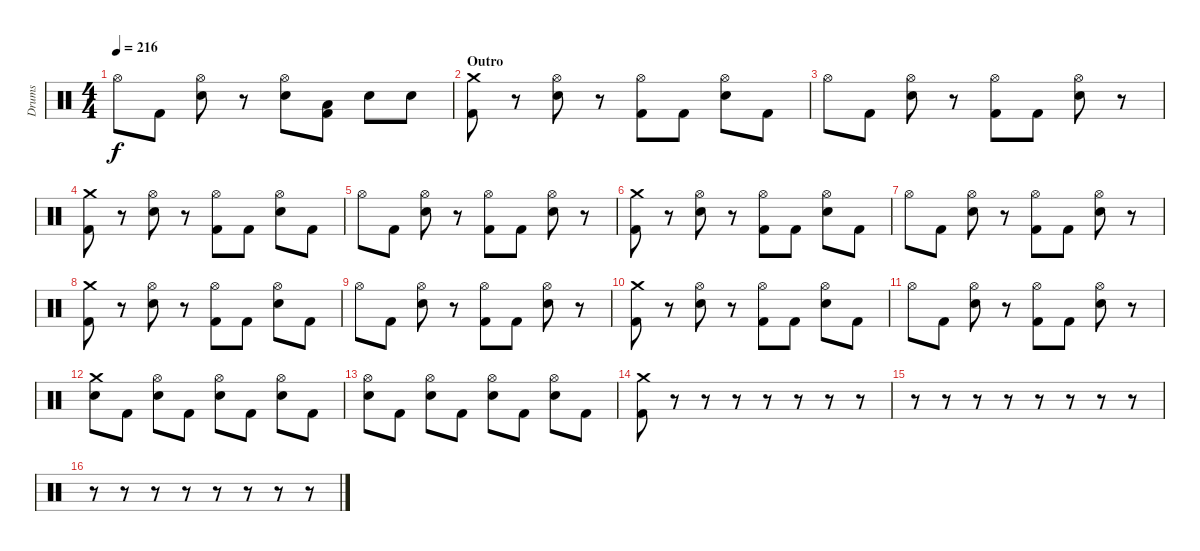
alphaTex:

\track ("Drums" "Drums") {instrument percussion}
\staff {score}
\articulation defaults
\ts (4 4)
\tempo 216
\clef neutral
\ks c "Hi-Hat (open)".8{dy f} "Kick (hit) 2".8
("Hi-Hat (open)" "Electric Snare (hit)").8 r.8 ("Hi-Hat (open)" "Electric Snare (hit)").8 ("Low Tom (hit)" "Kick (hit) 2").8 "Electric Snare (hit)".8 "Electric Snare (hit)".8 |
\section ("" "Outro")
("Crash medium (hit)" "Kick (hit) 2").8 r.8 ("Hi-Hat (open)" "Electric Snare (hit)").8 r.8 ("Hi-Hat (open)" "Kick (hit) 2").8 "Kick (hit) 2".8 ("Hi-Hat (open)" "Electric Snare (hit)").8 "Kick (hit) 2".8 |
"Hi-Hat (open)".8 "Kick (hit) 2".8 ("Hi-Hat (open)" "Electric Snare (hit)").8 r.8 ("Hi-Hat (open)" "Kick (hit) 2").8 "Kick (hit) 2".8 ("Hi-Hat (open)" "Electric Snare (hit)").8 r.8 |
("Crash medium (hit)" "Kick (hit) 2").8 r.8 ("Hi-Hat (open)" "Electric Snare (hit)").8 r.8 ("Hi-Hat (open)" "Kick (hit) 2").8 "Kick (hit) 2".8 ("Hi-Hat (open)" "Electric Snare (hit)").8 "Kick (hit) 2".8 |
"Hi-Hat (open)".8 "Kick (hit) 2".8 ("Hi-Hat (open)" "Electric Snare (hit)").8 r.8 ("Hi-Hat (open)" "Kick (hit) 2").8 "Kick (hit) 2".8 ("Hi-Hat (open)" "Electric Snare (hit)").8 r.8 |
("Crash medium (hit)" "Kick (hit) 2").8 r.8 ("Hi-Hat (open)" "Electric Snare (hit)").8 r.8 ("Hi-Hat (open)" "Kick (hit) 2").8 "Kick (hit) 2".8 ("Hi-Hat (open)" "Electric Snare (hit)").8 "Kick (hit) 2".8 |
"Hi-Hat (open)".8 "Kick (hit) 2".8 ("Hi-Hat (open)" "Electric Snare (hit)").8 r.8 ("Hi-Hat (open)" "Kick (hit) 2").8 "Kick (hit) 2".8 ("Hi-Hat (open)" "Electric Snare (hit)").8 r.8 |
("Crash medium (hit)" "Kick (hit) 2").8 r.8 ("Hi-Hat (open)" "Electric Snare (hit)").8 r.8 ("Hi-Hat (open)" "Kick (hit) 2").8 "Kick (hit) 2".8 ("Hi-Hat (open)" "Electric Snare (hit)").8 "Kick (hit) 2".8 |
"Hi-Hat (open)".8 "Kick (hit) 2".8 ("Hi-Hat (open)" "Electric Snare (hit)").8 r.8 ("Hi-Hat (open)" "Kick (hit) 2").8 "Kick (hit) 2".8 ("Hi-Hat (open)" "Electric Snare (hit)").8 r.8 |
("Crash medium (hit)" "Kick (hit) 2").8 r.8 ("Hi-Hat (open)" "Electric Snare (hit)").8 r.8 ("Hi-Hat (open)" "Kick (hit) 2").8 "Kick (hit) 2".8 ("Hi-Hat (open)" "Electric Snare (hit)").8 "Kick (hit) 2".8 |
"Hi-Hat (open)".8 "Kick (hit) 2".8 ("Hi-Hat (open)" "Electric Snare (hit)").8 r.8 ("Hi-Hat (open)" "Kick (hit) 2").8 "Kick (hit) 2".8 ("Hi-Hat (open)" "Electric Snare (hit)").8 r.8 |
("Crash medium (hit)" "Electric Snare (hit)").8 "Kick (hit) 2".8 ("Hi-Hat (open)" "Electric Snare (hit)").8 "Kick (hit) 2".8 ("Hi-Hat (open)" "Electric Snare (hit)").8 "Kick (hit) 2".8 ("Hi-Hat (open)" "Electric Snare (hit)").8 "Kick (hit) 2".8 |
("Hi-Hat (open)" "Electric Snare (hit)").8 "Kick (hit) 2".8 ("Hi-Hat (open)" "Electric Snare (hit)").8 "Kick (hit) 2".8 ("Hi-Hat (open)" "Electric Snare (hit)").8 "Kick (hit) 2".8 ("Hi-Hat (open)" "Electric Snare (hit)").8 "Kick (hit) 2".8 |
("Crash medium (hit)" "Kick (hit) 2").8 r.8 r.8 r.8 r.8 r.8 r.8 r.8 |
r.8 r.8 r.8 r.8 r.8 r.8 r.8 r.8 |
r.8 r.8 r.8 r.8 r.8 r.8 r.8 r.8
